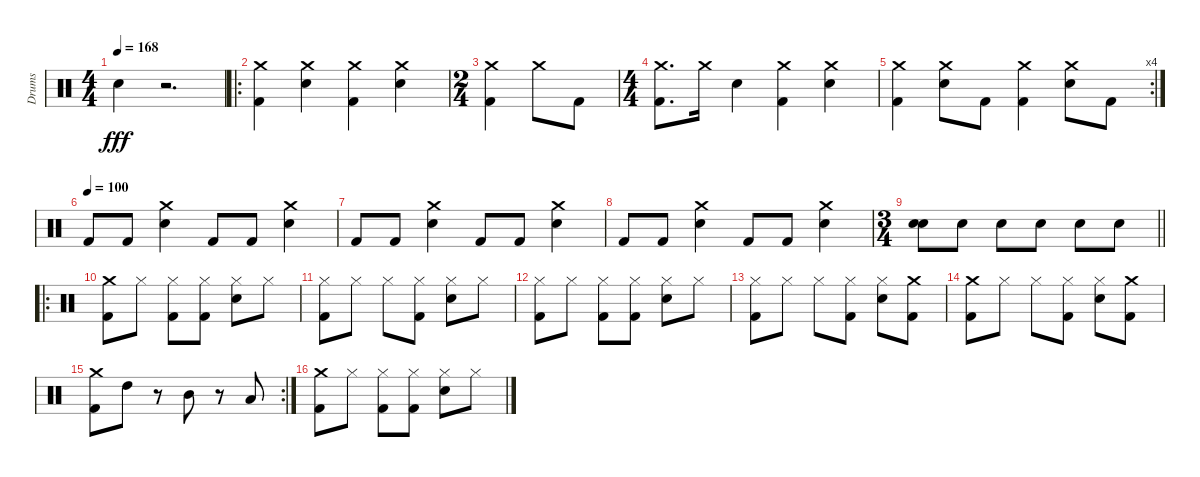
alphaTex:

\track ("Drums" "Drums") {instrument percussion}
\staff {score}
\articulation defaults
\ts (4 4)
\tempo 168
\clef neutral
\ks c "Snare (hit) 2".4{dy fff}
r.2{d} |
\ro
("Kick (hit) 2" "Crash medium (hit)").4 ("Snare (hit) 2" "Crash medium (hit)").4 ("Kick (hit) 2" "Crash medium (hit)").4 ("Snare (hit) 2" "Crash medium (hit)").4 |
\ts (2 4)
("Kick (hit) 2" "Crash medium (hit)").4 "Crash medium (hit)".8 "Kick (hit) 2".8 |
\ts (4 4)
("Kick (hit) 2" "Crash medium (hit)").8{d} "Crash medium (hit)".16 "Snare (hit) 2".4 ("Kick (hit) 2" "Crash medium (hit)").4 ("Snare (hit) 2" "Crash medium (hit)").4 |
\rc 4
("Kick (hit) 2" "Crash medium (hit)").4 ("Snare (hit) 2" "Crash medium (hit)").8 "Kick (hit) 2".8 ("Kick (hit) 2" "Crash medium (hit)").4 ("Snare (hit) 2" "Crash medium (hit)").8 "Kick (hit) 2".8 |
\tempo (100)
"Kick (hit) 2".8 "Kick (hit) 2".8 ("Snare (hit) 2" "Crash medium (hit)").4 "Kick (hit) 2".8 "Kick (hit) 2".8 ("Crash medium (hit)" "Snare (hit) 2").4 |
"Kick (hit) 2".8 "Kick (hit) 2".8 ("Snare (hit) 2" "Crash medium (hit)").4 "Kick (hit) 2".8 "Kick (hit) 2".8 ("Crash medium (hit)" "Snare (hit) 2").4 |
"Kick (hit) 2".8 "Kick (hit) 2".8 ("Snare (hit) 2" "Crash medium (hit)").4 "Kick (hit) 2".8 "Kick (hit) 2".8 ("Crash medium (hit)" "Snare (hit) 2").4 |
\ts (3 4)
\barLineRight lightlight
("Snare (hit) 2" "Snare (hit) 2").8 "Snare (hit) 2".8 "Snare (hit) 2".8 "Snare (hit) 2".8 "Snare (hit) 2".8 "Snare (hit) 2".8 |
\ro
("Crash medium (hit)" "Kick (hit) 2").8 "Hi-Hat (closed)".8 ("Kick (hit) 2" "Hi-Hat (closed)").8 ("Kick (hit) 2" "Hi-Hat (closed)").8 ("Snare (hit) 2" "Hi-Hat (closed)").8 "Hi-Hat (closed)".8 |
("Hi-Hat (closed)" "Kick (hit) 2").8 "Hi-Hat (closed)".8 "Hi-Hat (closed)".8 ("Kick (hit) 2" "Hi-Hat (closed)").8 ("Hi-Hat (closed)" "Snare (hit) 2").8 "Hi-Hat (closed)".8 |
("Hi-Hat (closed)" "Kick (hit) 2").8 "Hi-Hat (closed)".8 ("Kick (hit) 2" "Hi-Hat (closed)").8 ("Kick (hit) 2" "Hi-Hat (closed)").8 ("Hi-Hat (closed)" "Snare (hit) 2").8 "Hi-Hat (closed)".8 |
("Hi-Hat (closed)" "Kick (hit) 2").8 "Hi-Hat (closed)".8 "Hi-Hat (closed)".8 ("Kick (hit) 2" "Hi-Hat (closed)").8 ("Hi-Hat (closed)" "Snare (hit) 2").8 ("Crash medium (hit)" "Kick (hit) 2").8 |
("Kick (hit) 2" "Crash medium (hit)").8 "Hi-Hat (closed)".8 "Hi-Hat (closed)".8 ("Kick (hit) 2" "Hi-Hat (closed)").8 ("Snare (hit) 2" "Hi-Hat (closed)").8 ("Kick (hit) 2" "Crash medium (hit)").8 |
\rc 2
("Crash medium (hit)" "Kick (hit) 2").8 "High Tom (hit)".8{balance 16} r.8 "Mid Tom (hit)".8{balance 8} r.8 "Low Tom (hit)".8{balance 0} |
("Crash medium (hit)" "Kick (hit) 2").8{volume 14 balance 8} "Hi-Hat (closed)".8 ("Kick (hit) 2" "Hi-Hat (closed)").8 ("Kick (hit) 2" "Hi-Hat (closed)").8 ("Snare (hit) 2" "Hi-Hat (closed)").8 "Hi-Hat (closed)".8
